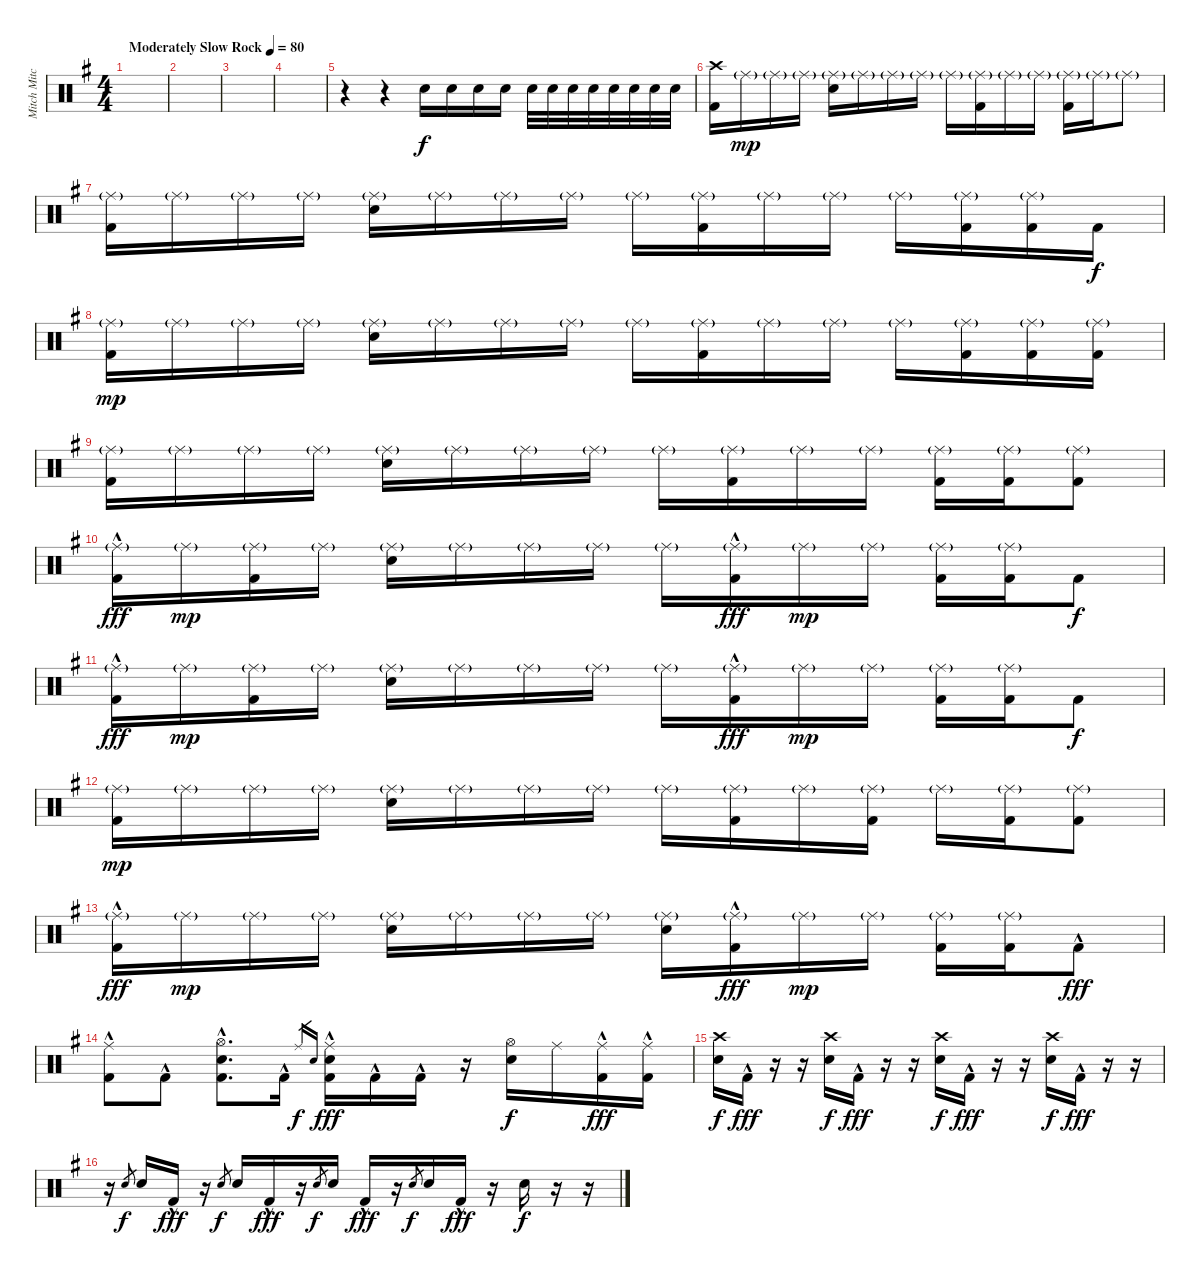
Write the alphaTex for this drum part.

\track ("Mitch Mitchell" "Mitch Mitc") {instrument percussion}
\staff {score}
\articulation defaults
\ts (4 4)
\tempo (80 "Moderately Slow Rock")
\clef neutral
\ks eminor
|
|
|
|
r.4 r.4 "Electric Snare (hit)".16{volume 6} "Electric Snare (hit)".16 "Electric Snare (hit)".16{volume 8} "Electric Snare (hit)".16 "Electric Snare (hit)".32{volume 10} "Electric Snare (hit)".32 "Electric Snare (hit)".32 "Electric Snare (hit)".32{volume 11} "Electric Snare (hit)".32 "Electric Snare (hit)".32 "Electric Snare (hit)".32 "Electric Snare (hit)".32{volume 14} |
("Crash high (hit)" "Kick (hit) 2").16 "Ride (middle)"{g}.16{dy mp} "Ride (middle)"{g}.16 "Ride (middle)"{g}.16 ("Ride (middle)"{g} "Electric Snare (hit)").16 "Ride (middle)"{g}.16 "Ride (middle)"{g}.16 "Ride (middle)"{g}.16 "Ride (middle)"{g}.16 ("Ride (middle)"{g} "Kick (hit) 2").16 "Ride (middle)"{g}.16 "Ride (middle)"{g}.16 ("Ride (middle)"{g} "Kick (hit) 2").16 "Ride (middle)"{g}.16 "Ride (middle)"{g}.8 |
("Ride (middle)"{g} "Kick (hit) 2").16 "Ride (middle)"{g}.16 "Ride (middle)"{g}.16 "Ride (middle)"{g}.16 ("Ride (middle)"{g} "Electric Snare (hit)").16 "Ride (middle)"{g}.16 "Ride (middle)"{g}.16 "Ride (middle)"{g}.16 "Ride (middle)"{g}.16 ("Ride (middle)"{g} "Kick (hit) 2").16 "Ride (middle)"{g}.16 "Ride (middle)"{g}.16 "Ride (middle)"{g}.16 ("Ride (middle)"{g} "Kick (hit) 2").16 ("Ride (middle)"{g} "Kick (hit) 2").16 "Kick (hit) 2".16{dy f} |
("Ride (middle)"{g} "Kick (hit) 2").16{dy mp} "Ride (middle)"{g}.16 "Ride (middle)"{g}.16 "Ride (middle)"{g}.16 ("Ride (middle)"{g} "Electric Snare (hit)").16 "Ride (middle)"{g}.16 "Ride (middle)"{g}.16 "Ride (middle)"{g}.16 "Ride (middle)"{g}.16 ("Ride (middle)"{g} "Kick (hit) 2").16 "Ride (middle)"{g}.16 "Ride (middle)"{g}.16 "Ride (middle)"{g}.16 ("Ride (middle)"{g} "Kick (hit) 2").16 ("Ride (middle)"{g} "Kick (hit) 2").16 ("Ride (middle)"{g} "Kick (hit) 2").16 |
("Ride (middle)"{g} "Kick (hit) 2").16 "Ride (middle)"{g}.16 "Ride (middle)"{g}.16 "Ride (middle)"{g}.16 ("Ride (middle)"{g} "Electric Snare (hit)").16 "Ride (middle)"{g}.16 "Ride (middle)"{g}.16 "Ride (middle)"{g}.16 "Ride (middle)"{g}.16 ("Ride (middle)"{g} "Kick (hit) 2").16 "Ride (middle)"{g}.16 "Ride (middle)"{g}.16 ("Ride (middle)"{g} "Kick (hit) 2").16 ("Ride (middle)"{g} "Kick (hit) 2").16 ("Ride (middle)"{g} "Kick (hit) 2").8 |
("Ride (middle)"{g} "Kick (hit) 2"{hac}).16{dy fff} "Ride (middle)"{g}.16{dy mp} ("Ride (middle)"{g} "Kick (hit) 2").16 "Ride (middle)"{g}.16 ("Ride (middle)"{g} "Electric Snare (hit)").16 "Ride (middle)"{g}.16 "Ride (middle)"{g}.16 "Ride (middle)"{g}.16 "Ride (middle)"{g}.16 ("Ride (middle)"{g} "Kick (hit) 2"{hac}).16{dy fff} "Ride (middle)"{g}.16{dy mp} "Ride (middle)"{g}.16 ("Ride (middle)"{g} "Kick (hit) 2").16 ("Ride (middle)"{g} "Kick (hit) 2").16 "Kick (hit) 2".8{dy f} |
("Ride (middle)"{g} "Kick (hit) 2"{hac}).16{dy fff} "Ride (middle)"{g}.16{dy mp} ("Ride (middle)"{g} "Kick (hit) 2").16 "Ride (middle)"{g}.16 ("Ride (middle)"{g} "Electric Snare (hit)").16 "Ride (middle)"{g}.16 "Ride (middle)"{g}.16 "Ride (middle)"{g}.16 "Ride (middle)"{g}.16 ("Ride (middle)"{g} "Kick (hit) 2"{hac}).16{dy fff} "Ride (middle)"{g}.16{dy mp} "Ride (middle)"{g}.16 ("Ride (middle)"{g} "Kick (hit) 2").16 ("Ride (middle)"{g} "Kick (hit) 2").16 "Kick (hit) 2".8{dy f} |
("Ride (middle)"{g} "Kick (hit) 2").16{dy mp} "Ride (middle)"{g}.16 "Ride (middle)"{g}.16 "Ride (middle)"{g}.16 ("Ride (middle)"{g} "Electric Snare (hit)").16 "Ride (middle)"{g}.16 "Ride (middle)"{g}.16 "Ride (middle)"{g}.16 "Ride (middle)"{g}.16 ("Ride (middle)"{g} "Kick (hit) 2").16 "Ride (middle)"{g}.16 ("Ride (middle)"{g} "Kick (hit) 2").16 "Ride (middle)"{g}.16 ("Ride (middle)"{g} "Kick (hit) 2").16 ("Ride (middle)"{g} "Kick (hit) 2").8 |
("Ride (middle)"{g} "Kick (hit) 2"{hac}).16{dy fff} "Ride (middle)"{g}.16{dy mp} "Ride (middle)"{g}.16 "Ride (middle)"{g}.16 ("Ride (middle)"{g} "Electric Snare (hit)").16 "Ride (middle)"{g}.16 "Ride (middle)"{g}.16 "Ride (middle)"{g}.16 ("Ride (middle)"{g} "Electric Snare (hit)").16 ("Ride (middle)"{g} "Kick (hit) 2"{hac}).16{dy fff} "Ride (middle)"{g}.16{dy mp} "Ride (middle)"{g}.16 ("Ride (middle)"{g} "Kick (hit) 2").16 ("Ride (middle)"{g} "Kick (hit) 2").16 "Kick (hit) 2"{hac}.8{dy fff} |
("Ride (middle)" "Kick (hit) 2"{hac}).8 "Kick (hit) 2"{hac}.8 ("Hi-Hat (open)" "Electric Snare (hit)" "Kick (hit) 2"{hac}).8{d} "Kick (hit) 2"{hac}.16 "Ride (middle)".16{gr dy f} "Electric Snare (hit)".16{gr} ("Ride (middle)" "Electric Snare (hit)" "Kick (hit) 2"{hac}).16{dy fff} "Kick (hit) 2"{hac}.16 "Kick (hit) 2"{hac}.16 r.16 ("Hi-Hat (open)" "Electric Snare (hit)").16{dy f} "Ride (middle)".16 ("Ride (middle)" "Kick (hit) 2"{hac}).16{dy fff} ("Ride (middle)" "Kick (hit) 2"{hac}).16 |
("Crash high (hit)" "Electric Snare (hit)").16{dy f} "Kick (hit) 2"{hac}.16{dy fff} r.16 r.16 ("Crash high (hit)" "Electric Snare (hit)").16{dy f} "Kick (hit) 2"{hac}.16{dy fff} r.16 r.16 ("Crash high (hit)" "Electric Snare (hit)").16{dy f} "Kick (hit) 2"{hac}.16{dy fff} r.16 r.16 ("Crash high (hit)" "Electric Snare (hit)").16{dy f} "Kick (hit) 2"{hac}.16{dy fff} r.16 r.16 |
r.16 "Electric Snare (hit)".8{gr dy f} "Electric Snare (hit)".16 "Kick (hit) 2"{hac}.16{dy fff} r.16 "Electric Snare (hit)".8{gr dy f} "Electric Snare (hit)".16 "Kick (hit) 2"{hac}.16{dy fff} r.16 "Electric Snare (hit)".8{gr dy f} "Electric Snare (hit)".16 "Kick (hit) 2"{hac}.16{dy fff} r.16 "Electric Snare (hit)".8{gr dy f} "Electric Snare (hit)".16 "Kick (hit) 2"{hac}.16{dy fff} r.16 "Electric Snare (hit)".16{dy f} r.16 r.16
